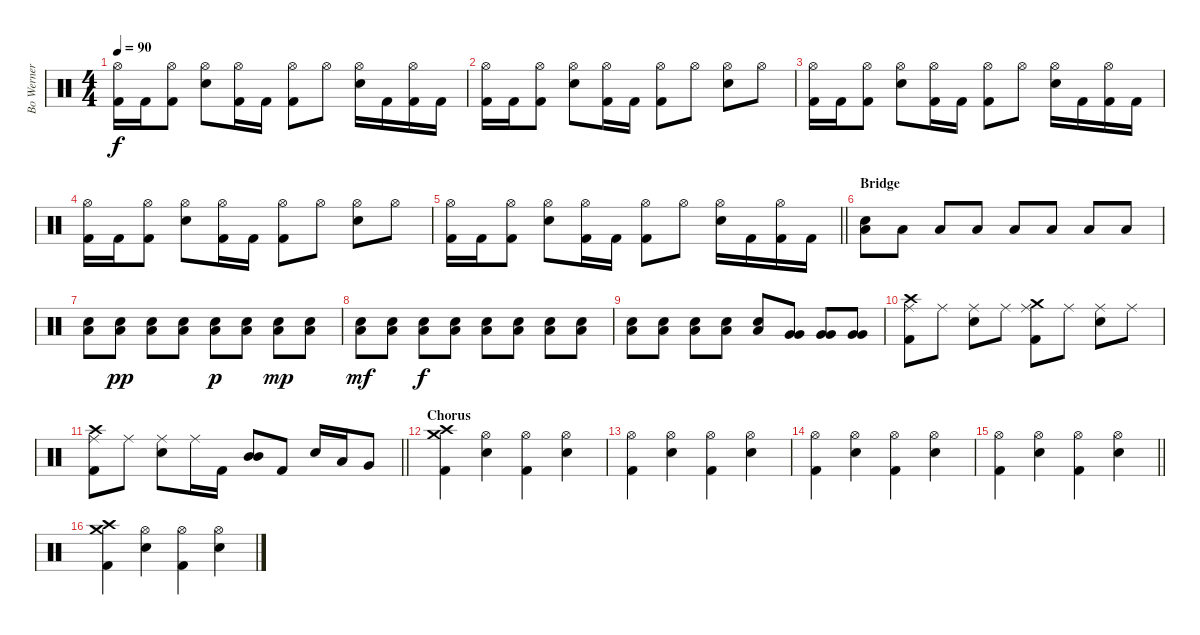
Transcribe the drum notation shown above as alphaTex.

\track ("Bo Werner" "Bo Werner") {instrument percussion}
\staff {score}
\articulation defaults
\ts (4 4)
\tempo 90
\clef neutral
\ks c
("Hi-Hat (open)" "Kick (hit) 2").16{dy f} "Kick (hit) 2".16 ("Hi-Hat (open)" "Kick (hit) 2").8 ("Hi-Hat (open)" "Snare (hit) 2").8 ("Hi-Hat (open)" "Kick (hit) 2").16 "Kick (hit) 2".16 ("Hi-Hat (open)" "Kick (hit) 2").8 "Hi-Hat (open)".8 ("Hi-Hat (open)" "Snare (hit) 2").16 "Kick (hit) 2".16 ("Hi-Hat (open)" "Kick (hit) 2").16 "Kick (hit) 2".16 |
("Hi-Hat (open)" "Kick (hit) 2").16 "Kick (hit) 2".16 ("Hi-Hat (open)" "Kick (hit) 2").8 ("Hi-Hat (open)" "Snare (hit) 2").8 ("Hi-Hat (open)" "Kick (hit) 2").16 "Kick (hit) 2".16 ("Hi-Hat (open)" "Kick (hit) 2").8 "Hi-Hat (open)".8 ("Hi-Hat (open)" "Snare (hit) 2").8 "Hi-Hat (open)".8 |
("Hi-Hat (open)" "Kick (hit) 2").16 "Kick (hit) 2".16 ("Hi-Hat (open)" "Kick (hit) 2").8 ("Hi-Hat (open)" "Snare (hit) 2").8 ("Hi-Hat (open)" "Kick (hit) 2").16 "Kick (hit) 2".16 ("Hi-Hat (open)" "Kick (hit) 2").8 "Hi-Hat (open)".8 ("Hi-Hat (open)" "Snare (hit) 2").16 "Kick (hit) 2".16 ("Hi-Hat (open)" "Kick (hit) 2").16 "Kick (hit) 2".16 |
("Hi-Hat (open)" "Kick (hit) 2").16 "Kick (hit) 2".16 ("Hi-Hat (open)" "Kick (hit) 2").8 ("Hi-Hat (open)" "Snare (hit) 2").8 ("Hi-Hat (open)" "Kick (hit) 2").16 "Kick (hit) 2".16 ("Hi-Hat (open)" "Kick (hit) 2").8 "Hi-Hat (open)".8 ("Hi-Hat (open)" "Snare (hit) 2").8 "Hi-Hat (open)".8 |
\barLineRight lightlight
("Hi-Hat (open)" "Kick (hit) 2").16 "Kick (hit) 2".16 ("Hi-Hat (open)" "Kick (hit) 2").8 ("Hi-Hat (open)" "Snare (hit) 2").8 ("Hi-Hat (open)" "Kick (hit) 2").16 "Kick (hit) 2".16 ("Hi-Hat (open)" "Kick (hit) 2").8 "Hi-Hat (open)".8 ("Hi-Hat (open)" "Snare (hit) 2").16 "Kick (hit) 2".16 ("Hi-Hat (open)" "Kick (hit) 2").16 "Kick (hit) 2".16 |
\section ("" "Bridge")
("Snare (hit) 2" "Low Floor Tom (hit)").8 "Low Floor Tom (hit)".8 "Low Floor Tom (hit)".8 "Low Floor Tom (hit)".8 "Low Floor Tom (hit)".8 "Low Floor Tom (hit)".8 "Low Floor Tom (hit)".8 "Low Floor Tom (hit)".8 |
("Snare (hit) 2" "Low Floor Tom (hit)").8 ("Snare (hit) 2" "Low Floor Tom (hit)").8{dy pp} ("Snare (hit) 2" "Low Floor Tom (hit)").8 ("Snare (hit) 2" "Low Floor Tom (hit)").8 ("Snare (hit) 2" "Low Floor Tom (hit)").8{dy p} ("Snare (hit) 2" "Low Floor Tom (hit)").8 ("Snare (hit) 2" "Low Floor Tom (hit)").8{dy mp} ("Snare (hit) 2" "Low Floor Tom (hit)").8 |
("Snare (hit) 2" "Low Floor Tom (hit)").8{dy mf} ("Snare (hit) 2" "Low Floor Tom (hit)").8 ("Snare (hit) 2" "Low Floor Tom (hit)").8{dy f} ("Snare (hit) 2" "Low Floor Tom (hit)").8 ("Snare (hit) 2" "Low Floor Tom (hit)").8 ("Snare (hit) 2" "Low Floor Tom (hit)").8 ("Snare (hit) 2" "Low Floor Tom (hit)").8 ("Snare (hit) 2" "Low Floor Tom (hit)").8 |
("Snare (hit) 2" "Low Floor Tom (hit)").8 ("Snare (hit) 2" "Low Floor Tom (hit)").8 ("Snare (hit) 2" "Low Floor Tom (hit)").8 ("Snare (hit) 2" "Low Floor Tom (hit)").8 ("Snare (hit) 2" "Low Floor Tom (hit)").8 ("Very Low Tom (hit)" "Very Low Tom (hit)").8 ("Very Low Tom (hit)" "Very Low Tom (hit)").8 ("Very Low Tom (hit)" "Very Low Tom (hit)").8 |
("Crash high (hit)" "Ride (middle)" "Kick (hit) 2").8 "Ride (middle)".8 ("Ride (middle)" "Snare (hit) 2").8 "Ride (middle)".8 ("Crash medium (hit)" "Ride (middle)" "Kick (hit) 2").8 "Ride (middle)".8 ("Ride (middle)" "Snare (hit) 2").8 "Ride (middle)".8 |
\barLineRight lightlight
("Crash high (hit)" "Ride (middle)" "Kick (hit) 2").8 "Ride (middle)".8 ("Ride (middle)" "Snare (hit) 2").8 "Ride (middle)".16 "Kick (hit) 2".16 ("Mid Tom (hit)" "Mid Tom (hit)").8 "Kick (hit) 2".8 "Snare (hit) 2".16 "Low Tom (hit)".16 "Very Low Tom (hit)".8 |
\section ("" "Chorus")
("Crash medium (hit)" "Crash high (hit)" "Kick (hit) 2").4 ("Hi-Hat (open)" "Snare (hit) 2").4 ("Hi-Hat (open)" "Kick (hit) 2").4 ("Hi-Hat (open)" "Snare (hit) 2").4 |
("Hi-Hat (open)" "Kick (hit) 2").4 ("Hi-Hat (open)" "Snare (hit) 2").4 ("Hi-Hat (open)" "Kick (hit) 2").4 ("Hi-Hat (open)" "Snare (hit) 2").4 |
("Hi-Hat (open)" "Kick (hit) 2").4 ("Hi-Hat (open)" "Snare (hit) 2").4 ("Hi-Hat (open)" "Kick (hit) 2").4 ("Hi-Hat (open)" "Snare (hit) 2").4 |
\barLineRight lightlight
("Hi-Hat (open)" "Kick (hit) 2").4 ("Hi-Hat (open)" "Snare (hit) 2").4 ("Hi-Hat (open)" "Kick (hit) 2").4 ("Hi-Hat (open)" "Snare (hit) 2").4 |
("Crash medium (hit)" "Crash high (hit)" "Kick (hit) 2").4 ("Hi-Hat (open)" "Snare (hit) 2").4 ("Hi-Hat (open)" "Kick (hit) 2").4 ("Hi-Hat (open)" "Snare (hit) 2").4
